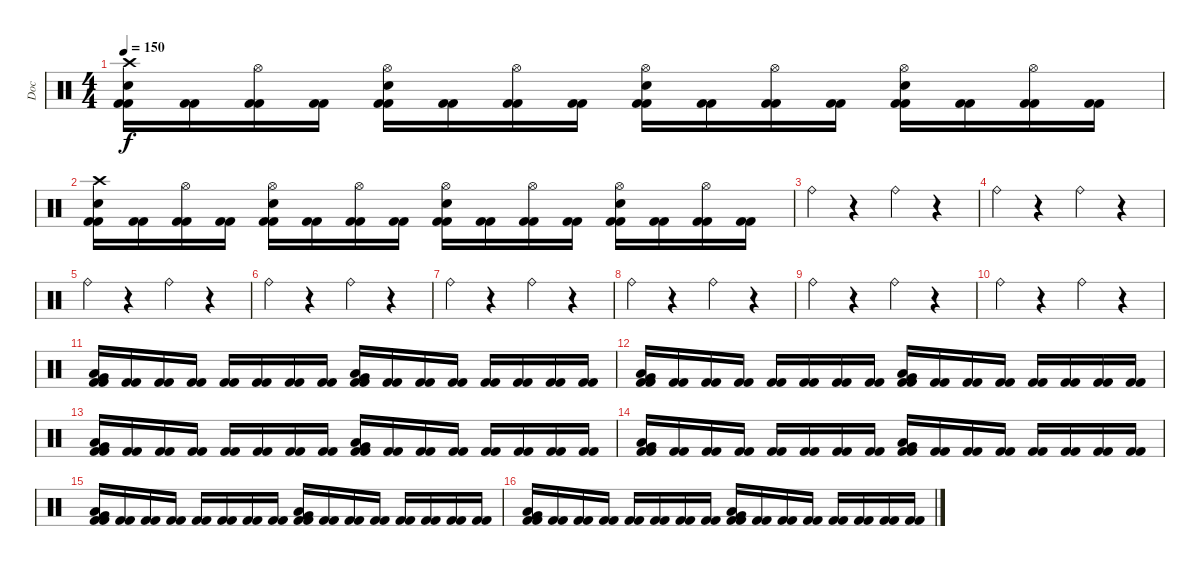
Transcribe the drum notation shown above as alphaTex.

\track ("Doc" "Doc") {instrument percussion}
\staff {score}
\articulation defaults
\ts (4 4)
\tempo 150
\clef neutral
\ks c
("Kick (hit) 2" "Crash high (hit)" "Electric Snare (hit)" "Kick (hit) 2").16{dy f} ("Kick (hit) 2" "Kick (hit) 2").16 ("Kick (hit) 2" "Hi-Hat (open)" "Kick (hit) 2").16 ("Kick (hit) 2" "Kick (hit) 2").16 ("Kick (hit) 2" "Hi-Hat (open)" "Electric Snare (hit)" "Kick (hit) 2").16 ("Kick (hit) 2" "Kick (hit) 2").16 ("Kick (hit) 2" "Hi-Hat (open)" "Kick (hit) 2").16 ("Kick (hit) 2" "Kick (hit) 2").16 ("Kick (hit) 2" "Hi-Hat (open)" "Electric Snare (hit)" "Kick (hit) 2").16 ("Kick (hit) 2" "Kick (hit) 2").16 ("Kick (hit) 2" "Hi-Hat (open)" "Kick (hit) 2").16 ("Kick (hit) 2" "Kick (hit) 2").16 ("Kick (hit) 2" "Hi-Hat (open)" "Electric Snare (hit)" "Kick (hit) 2").16 ("Kick (hit) 2" "Kick (hit) 2").16 ("Kick (hit) 2" "Hi-Hat (open)" "Kick (hit) 2").16 ("Kick (hit) 2" "Kick (hit) 2").16 |
("Kick (hit) 2" "Crash high (hit)" "Electric Snare (hit)" "Kick (hit) 2").16 ("Kick (hit) 2" "Kick (hit) 2").16 ("Kick (hit) 2" "Hi-Hat (open)" "Kick (hit) 2").16 ("Kick (hit) 2" "Kick (hit) 2").16 ("Kick (hit) 2" "Hi-Hat (open)" "Electric Snare (hit)" "Kick (hit) 2").16 ("Kick (hit) 2" "Kick (hit) 2").16 ("Kick (hit) 2" "Hi-Hat (open)" "Kick (hit) 2").16 ("Kick (hit) 2" "Kick (hit) 2").16 ("Kick (hit) 2" "Hi-Hat (open)" "Electric Snare (hit)" "Kick (hit) 2").16 ("Kick (hit) 2" "Kick (hit) 2").16 ("Kick (hit) 2" "Hi-Hat (open)" "Kick (hit) 2").16 ("Kick (hit) 2" "Kick (hit) 2").16 ("Kick (hit) 2" "Hi-Hat (open)" "Electric Snare (hit)" "Kick (hit) 2").16 ("Kick (hit) 2" "Kick (hit) 2").16 ("Kick (hit) 2" "Hi-Hat (open)" "Kick (hit) 2").16 ("Kick (hit) 2" "Kick (hit) 2").16 |
"Ride (bell)".4 r.4 "Ride (bell)".4 r.4 |
"Ride (bell)".4 r.4 "Ride (bell)".4 r.4 |
"Ride (bell)".4 r.4 "Ride (bell)".4 r.4 |
"Ride (bell)".4 r.4 "Ride (bell)".4 r.4 |
"Ride (bell)".4 r.4 "Ride (bell)".4 r.4 |
"Ride (bell)".4 r.4 "Ride (bell)".4 r.4 |
"Ride (bell)".4 r.4 "Ride (bell)".4 r.4 |
"Ride (bell)".4 r.4 "Ride (bell)".4 r.4 |
("Kick (hit) 2" "Very Low Tom (hit)" "Low Tom (hit)" "Kick (hit) 2").16 ("Kick (hit) 2" "Kick (hit) 2").16 ("Kick (hit) 2" "Kick (hit) 2").16 ("Kick (hit) 2" "Kick (hit) 2").16 ("Kick (hit) 2" "Kick (hit) 2").16 ("Kick (hit) 2" "Kick (hit) 2").16 ("Kick (hit) 2" "Kick (hit) 2").16 ("Kick (hit) 2" "Kick (hit) 2").16 ("Kick (hit) 2" "Very Low Tom (hit)" "Low Tom (hit)" "Kick (hit) 2").16 ("Kick (hit) 2" "Kick (hit) 2").16 ("Kick (hit) 2" "Kick (hit) 2").16 ("Kick (hit) 2" "Kick (hit) 2").16 ("Kick (hit) 2" "Kick (hit) 2").16 ("Kick (hit) 2" "Kick (hit) 2").16 ("Kick (hit) 2" "Kick (hit) 2").16 ("Kick (hit) 2" "Kick (hit) 2").16 |
("Kick (hit) 2" "Very Low Tom (hit)" "Low Tom (hit)" "Kick (hit) 2").16 ("Kick (hit) 2" "Kick (hit) 2").16 ("Kick (hit) 2" "Kick (hit) 2").16 ("Kick (hit) 2" "Kick (hit) 2").16 ("Kick (hit) 2" "Kick (hit) 2").16 ("Kick (hit) 2" "Kick (hit) 2").16 ("Kick (hit) 2" "Kick (hit) 2").16 ("Kick (hit) 2" "Kick (hit) 2").16 ("Kick (hit) 2" "Very Low Tom (hit)" "Low Tom (hit)" "Kick (hit) 2").16 ("Kick (hit) 2" "Kick (hit) 2").16 ("Kick (hit) 2" "Kick (hit) 2").16 ("Kick (hit) 2" "Kick (hit) 2").16 ("Kick (hit) 2" "Kick (hit) 2").16 ("Kick (hit) 2" "Kick (hit) 2").16 ("Kick (hit) 2" "Kick (hit) 2").16 ("Kick (hit) 2" "Kick (hit) 2").16 |
("Kick (hit) 2" "Very Low Tom (hit)" "Low Tom (hit)" "Kick (hit) 2").16 ("Kick (hit) 2" "Kick (hit) 2").16 ("Kick (hit) 2" "Kick (hit) 2").16 ("Kick (hit) 2" "Kick (hit) 2").16 ("Kick (hit) 2" "Kick (hit) 2").16 ("Kick (hit) 2" "Kick (hit) 2").16 ("Kick (hit) 2" "Kick (hit) 2").16 ("Kick (hit) 2" "Kick (hit) 2").16 ("Kick (hit) 2" "Very Low Tom (hit)" "Low Tom (hit)" "Kick (hit) 2").16 ("Kick (hit) 2" "Kick (hit) 2").16 ("Kick (hit) 2" "Kick (hit) 2").16 ("Kick (hit) 2" "Kick (hit) 2").16 ("Kick (hit) 2" "Kick (hit) 2").16 ("Kick (hit) 2" "Kick (hit) 2").16 ("Kick (hit) 2" "Kick (hit) 2").16 ("Kick (hit) 2" "Kick (hit) 2").16 |
("Kick (hit) 2" "Very Low Tom (hit)" "Low Tom (hit)" "Kick (hit) 2").16 ("Kick (hit) 2" "Kick (hit) 2").16 ("Kick (hit) 2" "Kick (hit) 2").16 ("Kick (hit) 2" "Kick (hit) 2").16 ("Kick (hit) 2" "Kick (hit) 2").16 ("Kick (hit) 2" "Kick (hit) 2").16 ("Kick (hit) 2" "Kick (hit) 2").16 ("Kick (hit) 2" "Kick (hit) 2").16 ("Kick (hit) 2" "Very Low Tom (hit)" "Low Tom (hit)" "Kick (hit) 2").16 ("Kick (hit) 2" "Kick (hit) 2").16 ("Kick (hit) 2" "Kick (hit) 2").16 ("Kick (hit) 2" "Kick (hit) 2").16 ("Kick (hit) 2" "Kick (hit) 2").16 ("Kick (hit) 2" "Kick (hit) 2").16 ("Kick (hit) 2" "Kick (hit) 2").16 ("Kick (hit) 2" "Kick (hit) 2").16 |
("Kick (hit) 2" "Very Low Tom (hit)" "Low Tom (hit)" "Kick (hit) 2").16 ("Kick (hit) 2" "Kick (hit) 2").16 ("Kick (hit) 2" "Kick (hit) 2").16 ("Kick (hit) 2" "Kick (hit) 2").16 ("Kick (hit) 2" "Kick (hit) 2").16 ("Kick (hit) 2" "Kick (hit) 2").16 ("Kick (hit) 2" "Kick (hit) 2").16 ("Kick (hit) 2" "Kick (hit) 2").16 ("Kick (hit) 2" "Very Low Tom (hit)" "Low Tom (hit)" "Kick (hit) 2").16 ("Kick (hit) 2" "Kick (hit) 2").16 ("Kick (hit) 2" "Kick (hit) 2").16 ("Kick (hit) 2" "Kick (hit) 2").16 ("Kick (hit) 2" "Kick (hit) 2").16 ("Kick (hit) 2" "Kick (hit) 2").16 ("Kick (hit) 2" "Kick (hit) 2").16 ("Kick (hit) 2" "Kick (hit) 2").16 |
("Kick (hit) 2" "Very Low Tom (hit)" "Low Tom (hit)" "Kick (hit) 2").16 ("Kick (hit) 2" "Kick (hit) 2").16 ("Kick (hit) 2" "Kick (hit) 2").16 ("Kick (hit) 2" "Kick (hit) 2").16 ("Kick (hit) 2" "Kick (hit) 2").16 ("Kick (hit) 2" "Kick (hit) 2").16 ("Kick (hit) 2" "Kick (hit) 2").16 ("Kick (hit) 2" "Kick (hit) 2").16 ("Kick (hit) 2" "Very Low Tom (hit)" "Low Tom (hit)" "Kick (hit) 2").16 ("Kick (hit) 2" "Kick (hit) 2").16 ("Kick (hit) 2" "Kick (hit) 2").16 ("Kick (hit) 2" "Kick (hit) 2").16 ("Kick (hit) 2" "Kick (hit) 2").16 ("Kick (hit) 2" "Kick (hit) 2").16 ("Kick (hit) 2" "Kick (hit) 2").16 ("Kick (hit) 2" "Kick (hit) 2").16
